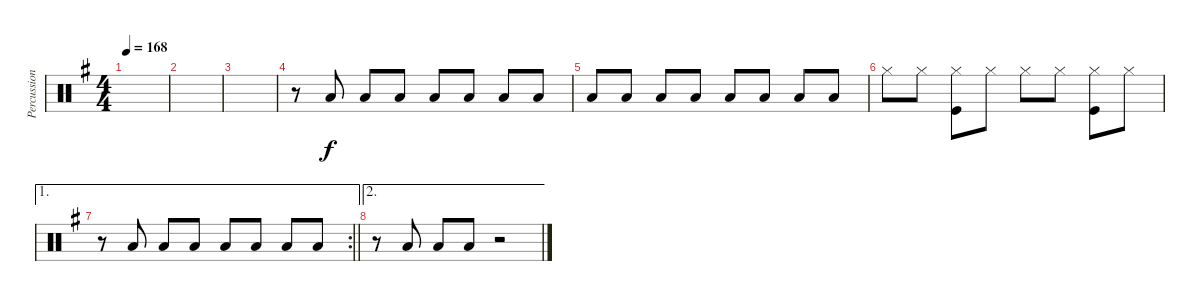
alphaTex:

\track ("Percussion" "Percussion") {instrument percussion}
\staff {score}
\articulation defaults
\ts (4 4)
\tempo 168
\clef neutral
\ks g
|
|
|
r.8 "Low Tom (hit)".8 "Low Tom (hit)".8 "Low Tom (hit)".8 "Low Tom (hit)".8 "Low Tom (hit)".8 "Low Tom (hit)".8 "Low Tom (hit)".8 |
"Low Tom (hit)".8 "Low Tom (hit)".8 "Low Tom (hit)".8 "Low Tom (hit)".8 "Low Tom (hit)".8 "Low Tom (hit)".8 "Low Tom (hit)".8 "Low Tom (hit)".8 |
"Hi-Hat (closed)".8 "Hi-Hat (closed)".8 ("Hi-Hat (closed)" "Kick (hit)").8 "Hi-Hat (closed)".8 "Hi-Hat (closed)".8 "Hi-Hat (closed)".8 ("Hi-Hat (closed)" "Kick (hit)").8 "Hi-Hat (closed)".8 |
\ae 1
\rc 2
\barLineRight lightlight
r.8 "Low Tom (hit)".8 "Low Tom (hit)".8 "Low Tom (hit)".8 "Low Tom (hit)".8 "Low Tom (hit)".8 "Low Tom (hit)".8 "Low Tom (hit)".8 |
\ae 2
r.8 "Low Tom (hit)".8 "Low Tom (hit)".8 "Low Tom (hit)".8 r.2
